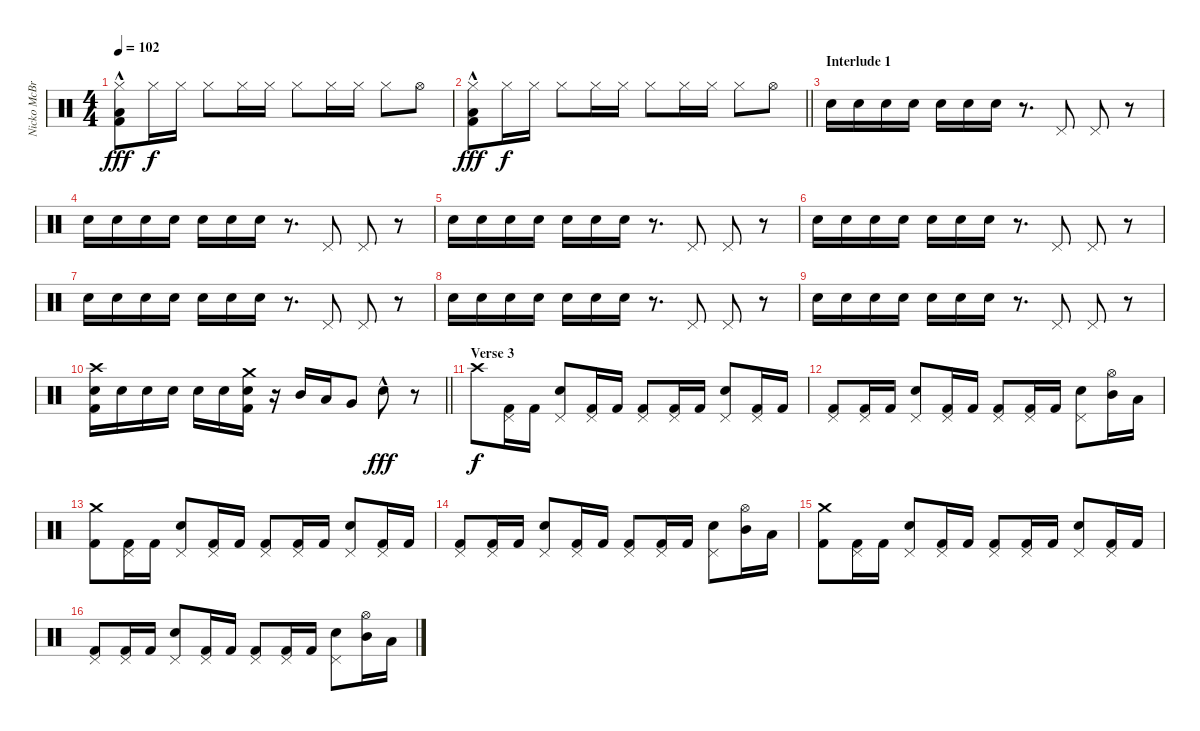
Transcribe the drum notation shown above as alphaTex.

\track ("Nicko McBrain" "Nicko McBr") {instrument percussion}
\staff {score}
\articulation defaults
\ts (4 4)
\tempo 102
\clef neutral
\ks c
("Hi-Hat (closed)" "Low Floor Tom (hit)"{hac} "Kick (hit) 2"{hac}).8{dy fff} "Hi-Hat (closed)".16{dy f} "Hi-Hat (closed)".16 "Hi-Hat (closed)".8 "Hi-Hat (closed)".16 "Hi-Hat (closed)".16 "Hi-Hat (closed)".8 "Hi-Hat (closed)".16 "Hi-Hat (closed)".16 "Hi-Hat (closed)".8 "Hi-Hat (open)".8 |
\barLineRight lightlight
("Hi-Hat (closed)" "Low Floor Tom (hit)"{hac} "Kick (hit) 2"{hac}).8{dy fff} "Hi-Hat (closed)".16{dy f} "Hi-Hat (closed)".16 "Hi-Hat (closed)".8 "Hi-Hat (closed)".16 "Hi-Hat (closed)".16 "Hi-Hat (closed)".8 "Hi-Hat (closed)".16 "Hi-Hat (closed)".16 "Hi-Hat (closed)".8 "Hi-Hat (open)".8 |
\section ("" "Interlude 1")
"Electric Snare (hit)".16 "Electric Snare (hit)".16 "Electric Snare (hit)".16 "Electric Snare (hit)".16 "Electric Snare (hit)".16 "Electric Snare (hit)".16 "Electric Snare (hit)".16 r.8{d} "Pedal Hi-Hat (hit)".8 "Pedal Hi-Hat (hit)".8 r.8 |
"Electric Snare (hit)".16 "Electric Snare (hit)".16 "Electric Snare (hit)".16 "Electric Snare (hit)".16 "Electric Snare (hit)".16 "Electric Snare (hit)".16 "Electric Snare (hit)".16 r.8{d} "Pedal Hi-Hat (hit)".8 "Pedal Hi-Hat (hit)".8 r.8 |
"Electric Snare (hit)".16 "Electric Snare (hit)".16 "Electric Snare (hit)".16 "Electric Snare (hit)".16 "Electric Snare (hit)".16 "Electric Snare (hit)".16 "Electric Snare (hit)".16 r.8{d} "Pedal Hi-Hat (hit)".8 "Pedal Hi-Hat (hit)".8 r.8 |
"Electric Snare (hit)".16 "Electric Snare (hit)".16 "Electric Snare (hit)".16 "Electric Snare (hit)".16 "Electric Snare (hit)".16 "Electric Snare (hit)".16 "Electric Snare (hit)".16 r.8{d} "Pedal Hi-Hat (hit)".8 "Pedal Hi-Hat (hit)".8 r.8 |
"Electric Snare (hit)".16 "Electric Snare (hit)".16 "Electric Snare (hit)".16 "Electric Snare (hit)".16 "Electric Snare (hit)".16 "Electric Snare (hit)".16 "Electric Snare (hit)".16 r.8{d} "Pedal Hi-Hat (hit)".8 "Pedal Hi-Hat (hit)".8 r.8 |
"Electric Snare (hit)".16 "Electric Snare (hit)".16 "Electric Snare (hit)".16 "Electric Snare (hit)".16 "Electric Snare (hit)".16 "Electric Snare (hit)".16 "Electric Snare (hit)".16 r.8{d} "Pedal Hi-Hat (hit)".8 "Pedal Hi-Hat (hit)".8 r.8 |
"Electric Snare (hit)".16 "Electric Snare (hit)".16 "Electric Snare (hit)".16 "Electric Snare (hit)".16 "Electric Snare (hit)".16 "Electric Snare (hit)".16 "Electric Snare (hit)".16 r.8{d} "Pedal Hi-Hat (hit)".8 "Pedal Hi-Hat (hit)".8 r.8 |
\barLineRight lightlight
("Crash high (hit)" "Electric Snare (hit)" "Kick (hit) 2").16 "Electric Snare (hit)".16 "Electric Snare (hit)".16 "Electric Snare (hit)".16 "Electric Snare (hit)".16 "Electric Snare (hit)".16 ("Crash medium (hit)" "Electric Snare (hit)" "Kick (hit) 2").16 r.16 "Mid Tom (hit)".16 "Low Tom (hit)".16 "Very Low Tom (hit)".8 "Electric Snare (hit)"{hac}.8{dy fff} r.8 |
\section ("" "Verse 3")
"Crash high (hit)".8{dy f} ("Pedal Hi-Hat (hit)" "Kick (hit) 2").16 "Kick (hit) 2".16 ("Pedal Hi-Hat (hit)" "Electric Snare (hit)").8 ("Pedal Hi-Hat (hit)" "Kick (hit) 2").16 "Kick (hit) 2".16 ("Pedal Hi-Hat (hit)" "Kick (hit) 2").8 ("Pedal Hi-Hat (hit)" "Kick (hit) 2").16 "Kick (hit) 2".16 ("Pedal Hi-Hat (hit)" "Electric Snare (hit)").8 ("Pedal Hi-Hat (hit)" "Kick (hit) 2").16 "Kick (hit) 2".16 |
("Pedal Hi-Hat (hit)" "Kick (hit) 2").8 ("Pedal Hi-Hat (hit)" "Kick (hit) 2").16 "Kick (hit) 2".16 ("Pedal Hi-Hat (hit)" "Electric Snare (hit)").8 ("Pedal Hi-Hat (hit)" "Kick (hit) 2").16 "Kick (hit) 2".16 ("Pedal Hi-Hat (hit)" "Kick (hit) 2").8 ("Pedal Hi-Hat (hit)" "Kick (hit) 2").16 "Kick (hit) 2".16 ("Pedal Hi-Hat (hit)" "Electric Snare (hit)").8 ("Hi-Hat (open)" "Mid Tom (hit)").16 "Low Tom (hit)".16 |
("Crash medium (hit)" "Kick (hit) 2").8 ("Pedal Hi-Hat (hit)" "Kick (hit) 2").16 "Kick (hit) 2".16 ("Pedal Hi-Hat (hit)" "Electric Snare (hit)").8 ("Pedal Hi-Hat (hit)" "Kick (hit) 2").16 "Kick (hit) 2".16 ("Pedal Hi-Hat (hit)" "Kick (hit) 2").8 ("Pedal Hi-Hat (hit)" "Kick (hit) 2").16 "Kick (hit) 2".16 ("Pedal Hi-Hat (hit)" "Electric Snare (hit)").8 ("Pedal Hi-Hat (hit)" "Kick (hit) 2").16 "Kick (hit) 2".16 |
("Pedal Hi-Hat (hit)" "Kick (hit) 2").8 ("Pedal Hi-Hat (hit)" "Kick (hit) 2").16 "Kick (hit) 2".16 ("Pedal Hi-Hat (hit)" "Electric Snare (hit)").8 ("Pedal Hi-Hat (hit)" "Kick (hit) 2").16 "Kick (hit) 2".16 ("Pedal Hi-Hat (hit)" "Kick (hit) 2").8 ("Pedal Hi-Hat (hit)" "Kick (hit) 2").16 "Kick (hit) 2".16 ("Pedal Hi-Hat (hit)" "Electric Snare (hit)").8 ("Hi-Hat (open)" "Mid Tom (hit)").16 "Low Tom (hit)".16 |
("Crash medium (hit)" "Kick (hit) 2").8 ("Pedal Hi-Hat (hit)" "Kick (hit) 2").16 "Kick (hit) 2".16 ("Pedal Hi-Hat (hit)" "Electric Snare (hit)").8 ("Pedal Hi-Hat (hit)" "Kick (hit) 2").16 "Kick (hit) 2".16 ("Pedal Hi-Hat (hit)" "Kick (hit) 2").8 ("Pedal Hi-Hat (hit)" "Kick (hit) 2").16 "Kick (hit) 2".16 ("Pedal Hi-Hat (hit)" "Electric Snare (hit)").8 ("Pedal Hi-Hat (hit)" "Kick (hit) 2").16 "Kick (hit) 2".16 |
("Pedal Hi-Hat (hit)" "Kick (hit) 2").8 ("Pedal Hi-Hat (hit)" "Kick (hit) 2").16 "Kick (hit) 2".16 ("Pedal Hi-Hat (hit)" "Electric Snare (hit)").8 ("Pedal Hi-Hat (hit)" "Kick (hit) 2").16 "Kick (hit) 2".16 ("Pedal Hi-Hat (hit)" "Kick (hit) 2").8 ("Pedal Hi-Hat (hit)" "Kick (hit) 2").16 "Kick (hit) 2".16 ("Pedal Hi-Hat (hit)" "Electric Snare (hit)").8 ("Hi-Hat (open)" "Mid Tom (hit)").16 "Low Tom (hit)".16
